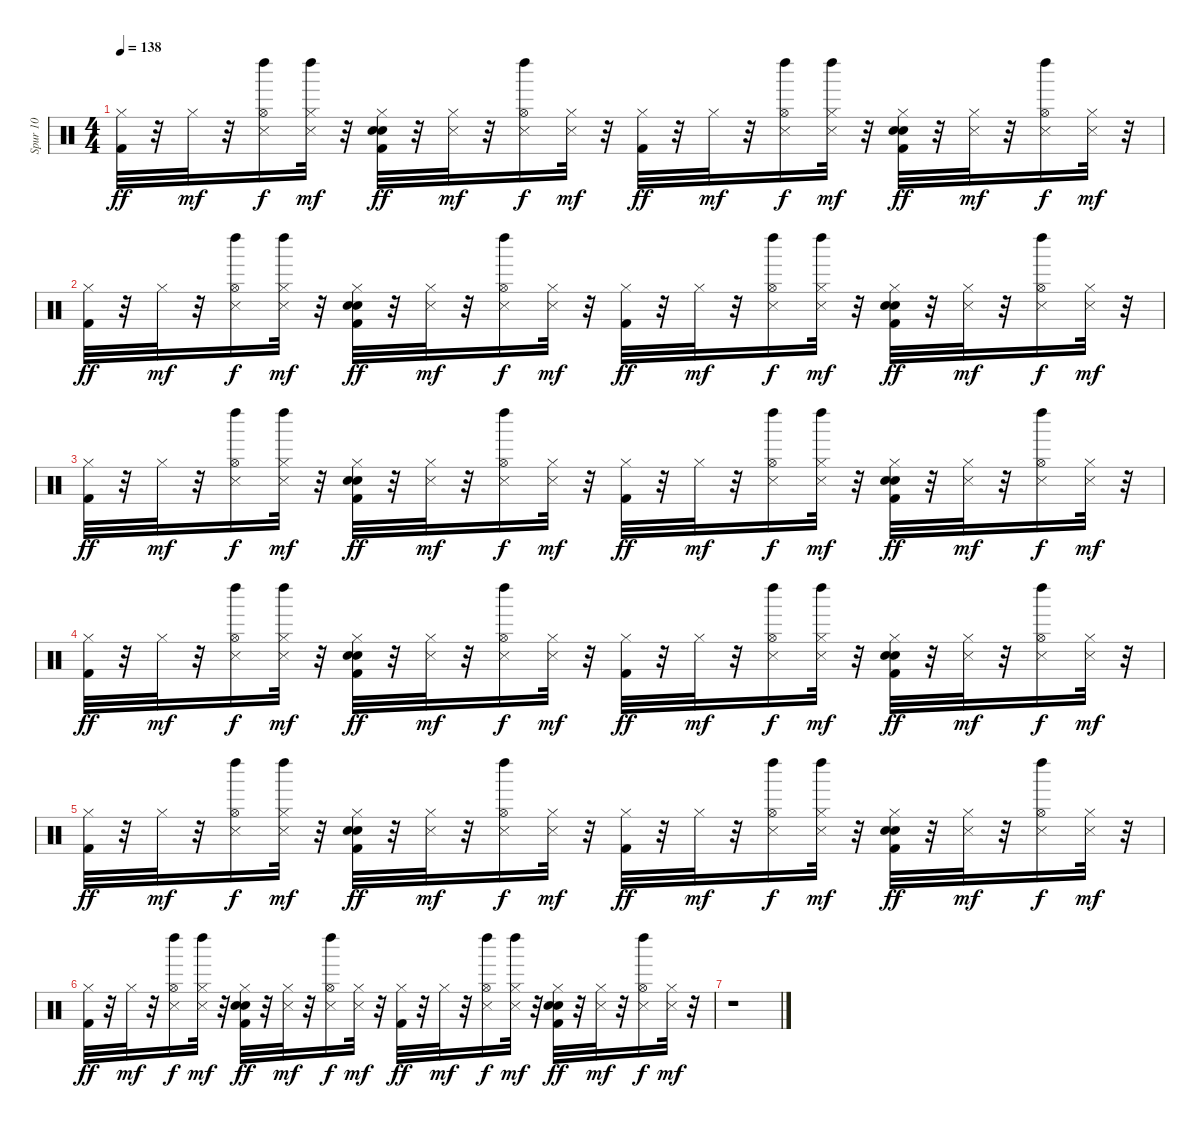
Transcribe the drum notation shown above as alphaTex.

\track ("Spur 10" "Spur 10") {instrument percussion}
\staff {score}
\articulation defaults
\ts (4 4)
\tempo 138
\clef neutral
\ks c
("Hi-Hat (closed)" "Kick (hit) 2").32{dy ff} r.32 "Hi-Hat (closed)".32{dy mf} r.32 ("Snare (side stick) 3" "Hi-Hat (open)" "Left Maraca (hit)").16{dy f} ("Hi-Hat (closed)" "Snare (side stick) 3" "Left Maraca (hit)").32{dy mf} r.32 ("Hand Clap (hit)" "Hi-Hat (closed)" "Kick (hit) 2" "Electric Snare (hit)").32{dy ff} r.32 ("Hi-Hat (closed)" "Snare (side stick) 3").32{dy mf} r.32 ("Snare (side stick) 3" "Hi-Hat (open)" "Left Maraca (hit)").16{dy f} ("Hi-Hat (closed)" "Snare (side stick) 3").32{dy mf} r.32 ("Hi-Hat (closed)" "Kick (hit) 2").32{dy ff} r.32 "Hi-Hat (closed)".32{dy mf} r.32 ("Snare (side stick) 3" "Hi-Hat (open)" "Left Maraca (hit)").16{dy f} ("Hi-Hat (closed)" "Snare (side stick) 3" "Left Maraca (hit)").32{dy mf} r.32 ("Hand Clap (hit)" "Hi-Hat (closed)" "Kick (hit) 2" "Electric Snare (hit)").32{dy ff} r.32 ("Hi-Hat (closed)" "Snare (side stick) 3").32{dy mf} r.32 ("Snare (side stick) 3" "Hi-Hat (open)" "Left Maraca (hit)").16{dy f} ("Hi-Hat (closed)" "Snare (side stick) 3").32{dy mf} r.32 |
("Hi-Hat (closed)" "Kick (hit) 2").32{dy ff} r.32 "Hi-Hat (closed)".32{dy mf} r.32 ("Snare (side stick) 3" "Hi-Hat (open)" "Left Maraca (hit)").16{dy f} ("Hi-Hat (closed)" "Snare (side stick) 3" "Left Maraca (hit)").32{dy mf} r.32 ("Hand Clap (hit)" "Hi-Hat (closed)" "Kick (hit) 2" "Electric Snare (hit)").32{dy ff} r.32 ("Hi-Hat (closed)" "Snare (side stick) 3").32{dy mf} r.32 ("Snare (side stick) 3" "Hi-Hat (open)" "Left Maraca (hit)").16{dy f} ("Hi-Hat (closed)" "Snare (side stick) 3").32{dy mf} r.32 ("Hi-Hat (closed)" "Kick (hit) 2").32{dy ff} r.32 "Hi-Hat (closed)".32{dy mf} r.32 ("Snare (side stick) 3" "Hi-Hat (open)" "Left Maraca (hit)").16{dy f} ("Hi-Hat (closed)" "Snare (side stick) 3" "Left Maraca (hit)").32{dy mf} r.32 ("Hand Clap (hit)" "Hi-Hat (closed)" "Kick (hit) 2" "Electric Snare (hit)").32{dy ff} r.32 ("Hi-Hat (closed)" "Snare (side stick) 3").32{dy mf} r.32 ("Snare (side stick) 3" "Hi-Hat (open)" "Left Maraca (hit)").16{dy f} ("Hi-Hat (closed)" "Snare (side stick) 3").32{dy mf} r.32 |
("Hi-Hat (closed)" "Kick (hit) 2").32{dy ff} r.32 "Hi-Hat (closed)".32{dy mf} r.32 ("Snare (side stick) 3" "Hi-Hat (open)" "Left Maraca (hit)").16{dy f} ("Hi-Hat (closed)" "Snare (side stick) 3" "Left Maraca (hit)").32{dy mf} r.32 ("Hand Clap (hit)" "Hi-Hat (closed)" "Kick (hit) 2" "Electric Snare (hit)").32{dy ff} r.32 ("Hi-Hat (closed)" "Snare (side stick) 3").32{dy mf} r.32 ("Snare (side stick) 3" "Hi-Hat (open)" "Left Maraca (hit)").16{dy f} ("Hi-Hat (closed)" "Snare (side stick) 3").32{dy mf} r.32 ("Hi-Hat (closed)" "Kick (hit) 2").32{dy ff} r.32 "Hi-Hat (closed)".32{dy mf} r.32 ("Snare (side stick) 3" "Hi-Hat (open)" "Left Maraca (hit)").16{dy f} ("Hi-Hat (closed)" "Snare (side stick) 3" "Left Maraca (hit)").32{dy mf} r.32 ("Hand Clap (hit)" "Hi-Hat (closed)" "Kick (hit) 2" "Electric Snare (hit)").32{dy ff} r.32 ("Hi-Hat (closed)" "Snare (side stick) 3").32{dy mf} r.32 ("Snare (side stick) 3" "Hi-Hat (open)" "Left Maraca (hit)").16{dy f} ("Hi-Hat (closed)" "Snare (side stick) 3").32{dy mf} r.32 |
("Hi-Hat (closed)" "Kick (hit) 2").32{dy ff} r.32 "Hi-Hat (closed)".32{dy mf} r.32 ("Snare (side stick) 3" "Hi-Hat (open)" "Left Maraca (hit)").16{dy f} ("Hi-Hat (closed)" "Snare (side stick) 3" "Left Maraca (hit)").32{dy mf} r.32 ("Hand Clap (hit)" "Hi-Hat (closed)" "Kick (hit) 2" "Electric Snare (hit)").32{dy ff} r.32 ("Hi-Hat (closed)" "Snare (side stick) 3").32{dy mf} r.32 ("Snare (side stick) 3" "Hi-Hat (open)" "Left Maraca (hit)").16{dy f} ("Hi-Hat (closed)" "Snare (side stick) 3").32{dy mf} r.32 ("Hi-Hat (closed)" "Kick (hit) 2").32{dy ff} r.32 "Hi-Hat (closed)".32{dy mf} r.32 ("Snare (side stick) 3" "Hi-Hat (open)" "Left Maraca (hit)").16{dy f} ("Hi-Hat (closed)" "Snare (side stick) 3" "Left Maraca (hit)").32{dy mf} r.32 ("Hand Clap (hit)" "Hi-Hat (closed)" "Kick (hit) 2" "Electric Snare (hit)").32{dy ff} r.32 ("Hi-Hat (closed)" "Snare (side stick) 3").32{dy mf} r.32 ("Snare (side stick) 3" "Hi-Hat (open)" "Left Maraca (hit)").16{dy f} ("Hi-Hat (closed)" "Snare (side stick) 3").32{dy mf} r.32 |
("Hi-Hat (closed)" "Kick (hit) 2").32{dy ff} r.32 "Hi-Hat (closed)".32{dy mf} r.32 ("Snare (side stick) 3" "Hi-Hat (open)" "Left Maraca (hit)").16{dy f} ("Hi-Hat (closed)" "Snare (side stick) 3" "Left Maraca (hit)").32{dy mf} r.32 ("Hand Clap (hit)" "Hi-Hat (closed)" "Kick (hit) 2" "Electric Snare (hit)").32{dy ff} r.32 ("Hi-Hat (closed)" "Snare (side stick) 3").32{dy mf} r.32 ("Snare (side stick) 3" "Hi-Hat (open)" "Left Maraca (hit)").16{dy f} ("Hi-Hat (closed)" "Snare (side stick) 3").32{dy mf} r.32 ("Hi-Hat (closed)" "Kick (hit) 2").32{dy ff} r.32 "Hi-Hat (closed)".32{dy mf} r.32 ("Snare (side stick) 3" "Hi-Hat (open)" "Left Maraca (hit)").16{dy f} ("Hi-Hat (closed)" "Snare (side stick) 3" "Left Maraca (hit)").32{dy mf} r.32 ("Hand Clap (hit)" "Hi-Hat (closed)" "Kick (hit) 2" "Electric Snare (hit)").32{dy ff} r.32 ("Hi-Hat (closed)" "Snare (side stick) 3").32{dy mf} r.32 ("Snare (side stick) 3" "Hi-Hat (open)" "Left Maraca (hit)").16{dy f} ("Hi-Hat (closed)" "Snare (side stick) 3").32{dy mf} r.32 |
("Hi-Hat (closed)" "Kick (hit) 2").32{dy ff} r.32 "Hi-Hat (closed)".32{dy mf} r.32 ("Snare (side stick) 3" "Hi-Hat (open)" "Left Maraca (hit)").16{dy f} ("Hi-Hat (closed)" "Snare (side stick) 3" "Left Maraca (hit)").32{dy mf} r.32 ("Hand Clap (hit)" "Hi-Hat (closed)" "Kick (hit) 2" "Electric Snare (hit)").32{dy ff} r.32 ("Hi-Hat (closed)" "Snare (side stick) 3").32{dy mf} r.32 ("Snare (side stick) 3" "Hi-Hat (open)" "Left Maraca (hit)").16{dy f} ("Hi-Hat (closed)" "Snare (side stick) 3").32{dy mf} r.32 ("Hi-Hat (closed)" "Kick (hit) 2").32{dy ff} r.32 "Hi-Hat (closed)".32{dy mf} r.32 ("Snare (side stick) 3" "Hi-Hat (open)" "Left Maraca (hit)").16{dy f} ("Hi-Hat (closed)" "Snare (side stick) 3" "Left Maraca (hit)").32{dy mf} r.32 ("Hand Clap (hit)" "Hi-Hat (closed)" "Kick (hit) 2" "Electric Snare (hit)").32{dy ff} r.32 ("Hi-Hat (closed)" "Snare (side stick) 3").32{dy mf} r.32 ("Snare (side stick) 3" "Hi-Hat (open)" "Left Maraca (hit)").16{dy f} ("Hi-Hat (closed)" "Snare (side stick) 3").32{dy mf} r.32 |
r.1
